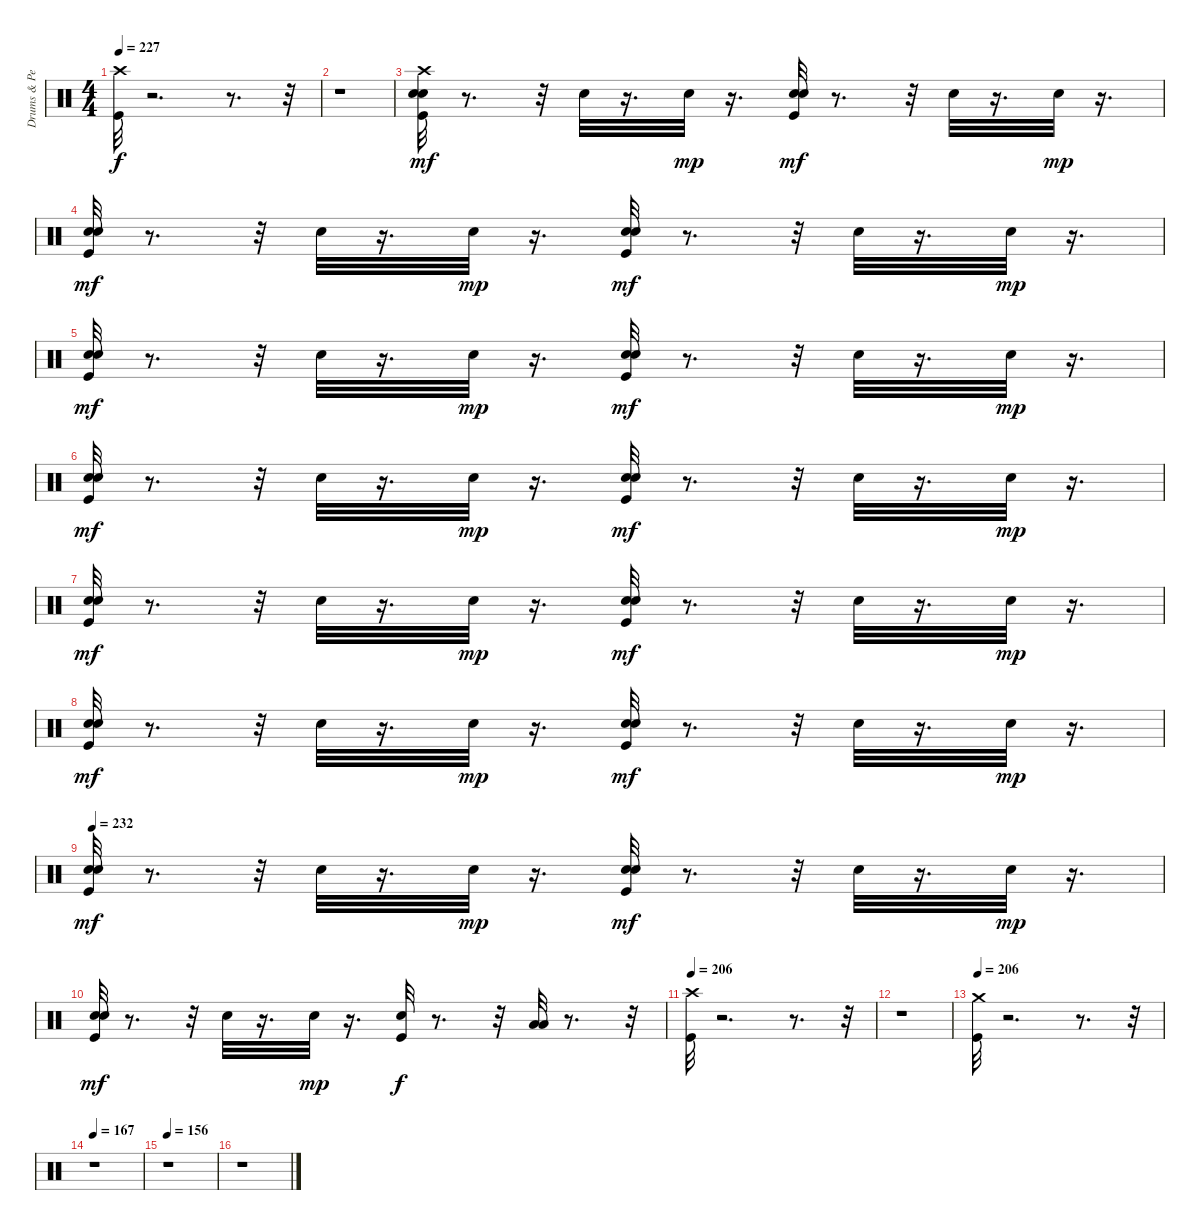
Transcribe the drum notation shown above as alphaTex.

\track ("Drums & Percussion" "Drums & Pe") {instrument percussion}
\staff {score}
\articulation defaults
\ts (4 4)
\tempo 227
\clef neutral
\ks c
("Crash high (hit)" "Kick (hit)").32{dy f} r.2{d} r.8{d} r.32 |
r.1 |
("Snare (hit) 2" "Electric Snare (hit)" "Crash high (hit)" "Kick (hit)").32{dy mf} r.8{d} r.32 "Snare (hit) 2".32 r.16{d} "Snare (hit) 2".32{dy mp} r.16{d} ("Kick (hit)" "Electric Snare (hit)" "Snare (hit) 2").32{dy mf} r.8{d} r.32 "Snare (hit) 2".32 r.16{d} "Snare (hit) 2".32{dy mp} r.16{d} |
("Snare (hit) 2" "Electric Snare (hit)" "Kick (hit)").32{dy mf} r.8{d} r.32 "Snare (hit) 2".32 r.16{d} "Snare (hit) 2".32{dy mp} r.16{d} ("Kick (hit)" "Electric Snare (hit)" "Snare (hit) 2").32{dy mf} r.8{d} r.32 "Snare (hit) 2".32 r.16{d} "Snare (hit) 2".32{dy mp} r.16{d} |
("Snare (hit) 2" "Electric Snare (hit)" "Kick (hit)").32{dy mf} r.8{d} r.32 "Snare (hit) 2".32 r.16{d} "Snare (hit) 2".32{dy mp} r.16{d} ("Kick (hit)" "Electric Snare (hit)" "Snare (hit) 2").32{dy mf} r.8{d} r.32 "Snare (hit) 2".32 r.16{d} "Snare (hit) 2".32{dy mp} r.16{d} |
("Snare (hit) 2" "Electric Snare (hit)" "Kick (hit)").32{dy mf} r.8{d} r.32 "Snare (hit) 2".32 r.16{d} "Snare (hit) 2".32{dy mp} r.16{d} ("Kick (hit)" "Electric Snare (hit)" "Snare (hit) 2").32{dy mf} r.8{d} r.32 "Snare (hit) 2".32 r.16{d} "Snare (hit) 2".32{dy mp} r.16{d} |
("Snare (hit) 2" "Electric Snare (hit)" "Kick (hit)").32{dy mf} r.8{d} r.32 "Snare (hit) 2".32 r.16{d} "Snare (hit) 2".32{dy mp} r.16{d} ("Kick (hit)" "Electric Snare (hit)" "Snare (hit) 2").32{dy mf} r.8{d} r.32 "Snare (hit) 2".32 r.16{d} "Snare (hit) 2".32{dy mp} r.16{d} |
("Snare (hit) 2" "Electric Snare (hit)" "Kick (hit)").32{dy mf} r.8{d} r.32 "Snare (hit) 2".32 r.16{d} "Snare (hit) 2".32{dy mp} r.16{d} ("Kick (hit)" "Electric Snare (hit)" "Snare (hit) 2").32{dy mf} r.8{d} r.32 "Snare (hit) 2".32 r.16{d} "Snare (hit) 2".32{dy mp} r.16{d} |
\tempo 232
("Snare (hit) 2" "Electric Snare (hit)" "Kick (hit)").32{dy mf} r.8{d} r.32 "Snare (hit) 2".32 r.16{d} "Snare (hit) 2".32{dy mp} r.16{d} ("Kick (hit)" "Electric Snare (hit)" "Snare (hit) 2").32{dy mf} r.8{d} r.32 "Snare (hit) 2".32 r.16{d} "Snare (hit) 2".32{dy mp} r.16{d} |
("Kick (hit)" "Electric Snare (hit)" "Snare (hit) 2").32{dy mf} r.8{d} r.32 "Snare (hit) 2".32 r.16{d} "Snare (hit) 2".32{dy mp} r.16{d} ("Kick (hit)" "Snare (hit) 2").32{dy f} r.8{d} r.32 ("Low Tom (hit)" "Low Floor Tom (hit)").32 r.8{d} r.32 |
\tempo 206
("Crash high (hit)" "Kick (hit)").32 r.2{d} r.8{d} r.32 |
r.1 |
\tempo 206
("Crash medium (hit)" "Kick (hit)").32 r.2{d} r.8{d} r.32 |
\tempo 167
r.1 |
\tempo 156
r.1 |
r.1
